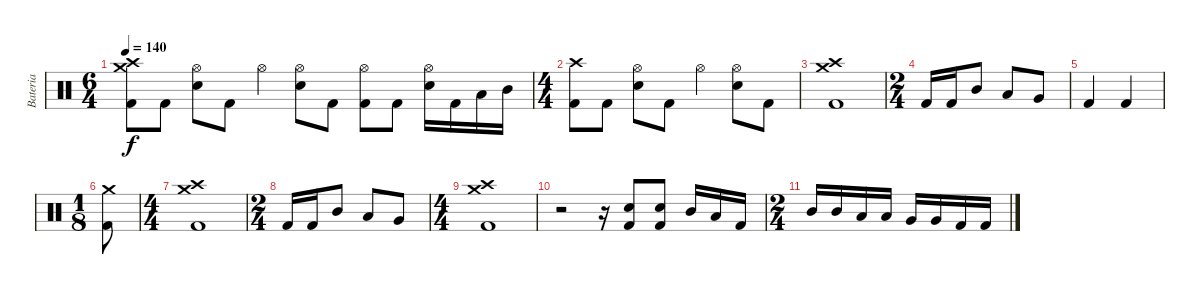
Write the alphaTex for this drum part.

\track ("Bateria" "Bateria") {instrument percussion}
\staff {score}
\articulation defaults
\ts (6 4)
\tempo 140
\clef neutral
\ks c
("Crash medium (hit)" "Crash high (hit)" "Kick (hit) 2").8{dy f} "Kick (hit) 2".8 ("Hi-Hat (open)" "Snare (hit) 2").8 "Kick (hit) 2".8 "Hi-Hat (open)".4 ("Hi-Hat (open)" "Snare (hit) 2").8 "Kick (hit) 2".8 ("Hi-Hat (open)" "Kick (hit) 2").8 "Kick (hit) 2".8 ("Hi-Hat (open)" "Snare (hit) 2").16 "Kick (hit) 2".16 "Low Tom (hit)".16 "Mid Tom (hit)".16 |
\ts (4 4)
("Crash high (hit)" "Kick (hit) 2").8 "Kick (hit) 2".8 ("Hi-Hat (open)" "Snare (hit) 2").8 "Kick (hit) 2".8 "Hi-Hat (open)".4 ("Hi-Hat (open)" "Snare (hit) 2").8 "Kick (hit) 2".8 |
("Crash high (hit)" "Crash medium (hit)" "Kick (hit) 2").1 |
\ts (2 4)
"Kick (hit) 2".16 "Kick (hit) 2".16 "Mid Tom (hit)".8 "Low Tom (hit)".8 "Very Low Tom (hit)".8 |
"Kick (hit) 2".4 "Kick (hit) 2".4 |
\ts (1 8)
("Crash medium (hit)" "Kick (hit) 2").8 |
\ts (4 4)
("Crash high (hit)" "Crash medium (hit)" "Kick (hit) 2").1 |
\ts (2 4)
"Kick (hit) 2".16 "Kick (hit) 2".16 "Mid Tom (hit)".8 "Low Tom (hit)".8 "Very Low Tom (hit)".8 |
\ts (4 4)
("Crash high (hit)" "Crash medium (hit)" "Kick (hit) 2").1 |
r.2 r.16 ("Snare (hit) 2" "Kick (hit) 2").8 ("Snare (hit) 2" "Kick (hit) 2").8 "Mid Tom (hit)".16 "Low Tom (hit)".16 "Kick (hit) 2".16 |
\ts (2 4)
"Mid Tom (hit)".16 "Mid Tom (hit)".16 "Low Tom (hit)".16 "Low Tom (hit)".16 "Very Low Tom (hit)".16 "Very Low Tom (hit)".16 "Kick (hit) 2".16 "Kick (hit) 2".16
